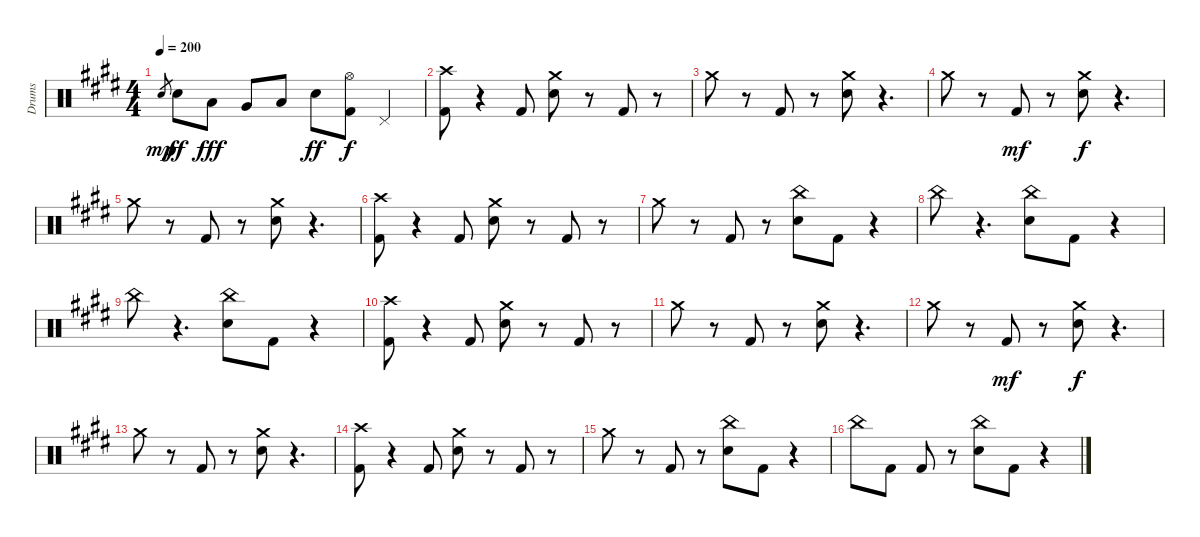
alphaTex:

\track ("Drums" "Drums") {instrument percussion}
\staff {score}
\articulation defaults
\ts (4 4)
\tempo 200
\clef neutral
\ks c#minor "Electric Snare (hit)".8{gr dy mp} "Electric Snare (hit)".8{dy ff} "Low Tom (hit)".8{dy fff} "Very Low Tom (hit)".8 "Low Floor Tom (hit)".8 "Electric Snare (hit)".8{dy ff}
("Hi-Hat (open)" "Kick (hit) 2").8{dy f} "Pedal Hi-Hat (hit)".4 |
("Crash high (hit)" "Kick (hit) 2").8 r.4 "Kick (hit) 2".8 ("Crash medium (hit)" "Electric Snare (hit)").8 r.8 "Kick (hit) 2".8 r.8 |
"Crash medium (hit)".8 r.8 "Kick (hit) 2".8 r.8 ("Crash medium (hit)" "Electric Snare (hit)").8 r.4{d} |
"Crash medium (hit)".8 r.8 "Kick (hit) 2".8{dy mf} r.8 ("Crash medium (hit)" "Electric Snare (hit)").8{dy f} r.4{d} |
"Crash medium (hit)".8 r.8 "Kick (hit) 2".8 r.8 ("Crash medium (hit)" "Electric Snare (hit)").8 r.4{d} |
("Crash high (hit)" "Kick (hit) 2").8 r.4 "Kick (hit) 2".8 ("Crash medium (hit)" "Electric Snare (hit)").8 r.8 "Kick (hit) 2".8 r.8 |
"Crash medium (hit)".8 r.8 "Kick (hit) 2".8 r.8 ("China (hit)" "Electric Snare (hit)").8 "Kick (hit) 2".8 r.4 |
"China (hit)".8 r.4{d} ("China (hit)" "Electric Snare (hit)").8 "Kick (hit) 2".8 r.4 |
"China (hit)".8 r.4{d} ("China (hit)" "Electric Snare (hit)").8 "Kick (hit) 2".8 r.4 |
("Crash high (hit)" "Kick (hit) 2").8 r.4 "Kick (hit) 2".8 ("Crash medium (hit)" "Electric Snare (hit)").8 r.8 "Kick (hit) 2".8 r.8 |
"Crash medium (hit)".8 r.8 "Kick (hit) 2".8 r.8 ("Crash medium (hit)" "Electric Snare (hit)").8 r.4{d} |
"Crash medium (hit)".8 r.8 "Kick (hit) 2".8{dy mf} r.8 ("Crash medium (hit)" "Electric Snare (hit)").8{dy f} r.4{d} |
"Crash medium (hit)".8 r.8 "Kick (hit) 2".8 r.8 ("Crash medium (hit)" "Electric Snare (hit)").8 r.4{d} |
("Crash high (hit)" "Kick (hit) 2").8 r.4 "Kick (hit) 2".8 ("Crash medium (hit)" "Electric Snare (hit)").8 r.8 "Kick (hit) 2".8 r.8 |
"Crash medium (hit)".8 r.8 "Kick (hit) 2".8 r.8 ("China (hit)" "Electric Snare (hit)").8 "Kick (hit) 2".8 r.4 |
"China (hit)".8 "Kick (hit) 2".8 "Kick (hit) 2".8 r.8 ("China (hit)" "Electric Snare (hit)").8 "Kick (hit) 2".8 r.4
